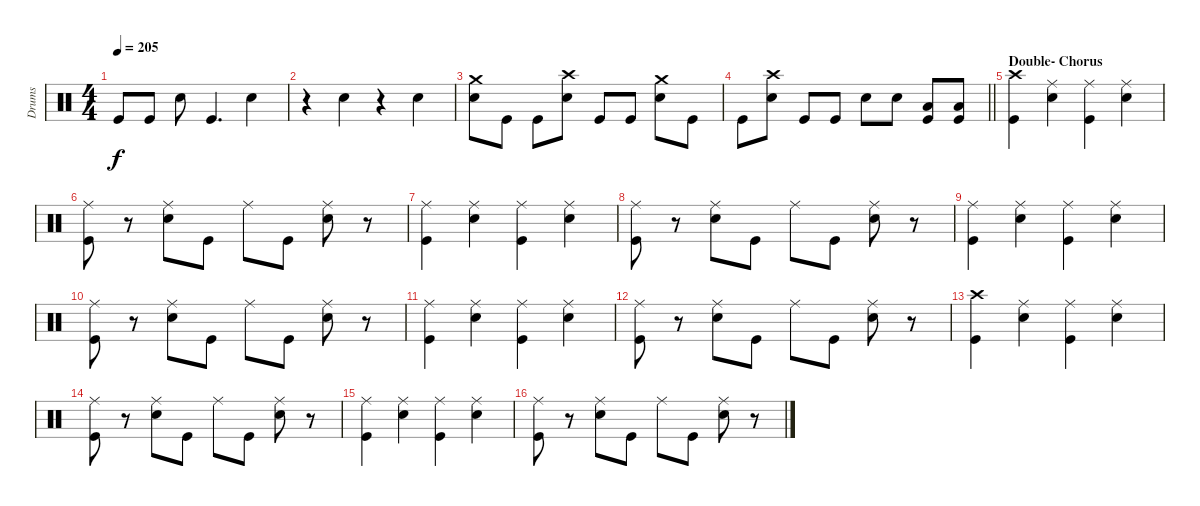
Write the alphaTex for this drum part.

\track ("Drums" "Drums") {instrument percussion}
\staff {score}
\articulation defaults
\ts (4 4)
\tempo 205
\clef neutral
\ks c "Kick (hit)".8{dy f} "Kick (hit)".8 "Electric Snare (hit)".8 "Kick (hit)".4{d} "Electric Snare (hit)".4
|
r.4 "Electric Snare (hit)".4 r.4 "Electric Snare (hit)".4 |
("Crash medium (hit)" "Electric Snare (hit)").8 "Kick (hit)".8 "Kick (hit)".8 ("Crash high (hit)" "Electric Snare (hit)").8 "Kick (hit)".8 "Kick (hit)".8 ("Crash medium (hit)" "Electric Snare (hit)").8 "Kick (hit)".8 |
\barLineRight lightlight "Kick (hit)".8
("Crash high (hit)" "Electric Snare (hit)").8 "Kick (hit)".8 "Kick (hit)".8 "Electric Snare (hit)".8 "Electric Snare (hit)".8 ("Low Tom (hit)" "Kick (hit)").8 ("Low Tom (hit)" "Kick (hit)").8 |
\section ("" "Double- Chorus")
("Crash high (hit)" "Kick (hit)").4 ("Ride (middle)" "Electric Snare (hit)").4 ("Ride (middle)" "Kick (hit)").4 ("Ride (middle)" "Electric Snare (hit)").4 |
("Ride (middle)" "Kick (hit)").8 r.8 ("Ride (middle)" "Electric Snare (hit)").8 "Kick (hit)".8 "Ride (middle)".8 "Kick (hit)".8 ("Ride (middle)" "Electric Snare (hit)").8 r.8 |
("Ride (middle)" "Kick (hit)").4 ("Ride (middle)" "Electric Snare (hit)").4 ("Ride (middle)" "Kick (hit)").4 ("Ride (middle)" "Electric Snare (hit)").4 |
("Ride (middle)" "Kick (hit)").8 r.8 ("Ride (middle)" "Electric Snare (hit)").8 "Kick (hit)".8 "Ride (middle)".8 "Kick (hit)".8 ("Ride (middle)" "Electric Snare (hit)").8 r.8 |
("Ride (middle)" "Kick (hit)").4 ("Ride (middle)" "Electric Snare (hit)").4 ("Ride (middle)" "Kick (hit)").4 ("Ride (middle)" "Electric Snare (hit)").4 |
("Ride (middle)" "Kick (hit)").8 r.8 ("Ride (middle)" "Electric Snare (hit)").8 "Kick (hit)".8 "Ride (middle)".8 "Kick (hit)".8 ("Ride (middle)" "Electric Snare (hit)").8 r.8 |
("Ride (middle)" "Kick (hit)").4 ("Ride (middle)" "Electric Snare (hit)").4 ("Ride (middle)" "Kick (hit)").4 ("Ride (middle)" "Electric Snare (hit)").4 |
("Ride (middle)" "Kick (hit)").8 r.8 ("Ride (middle)" "Electric Snare (hit)").8 "Kick (hit)".8 "Ride (middle)".8 "Kick (hit)".8 ("Ride (middle)" "Electric Snare (hit)").8 r.8 |
("Crash high (hit)" "Kick (hit)").4 ("Ride (middle)" "Electric Snare (hit)").4 ("Ride (middle)" "Kick (hit)").4 ("Ride (middle)" "Electric Snare (hit)").4 |
("Ride (middle)" "Kick (hit)").8 r.8 ("Ride (middle)" "Electric Snare (hit)").8 "Kick (hit)".8 "Ride (middle)".8 "Kick (hit)".8 ("Ride (middle)" "Electric Snare (hit)").8 r.8 |
("Ride (middle)" "Kick (hit)").4 ("Ride (middle)" "Electric Snare (hit)").4 ("Ride (middle)" "Kick (hit)").4 ("Ride (middle)" "Electric Snare (hit)").4 |
("Ride (middle)" "Kick (hit)").8 r.8 ("Ride (middle)" "Electric Snare (hit)").8 "Kick (hit)".8 "Ride (middle)".8 "Kick (hit)".8 ("Ride (middle)" "Electric Snare (hit)").8 r.8
